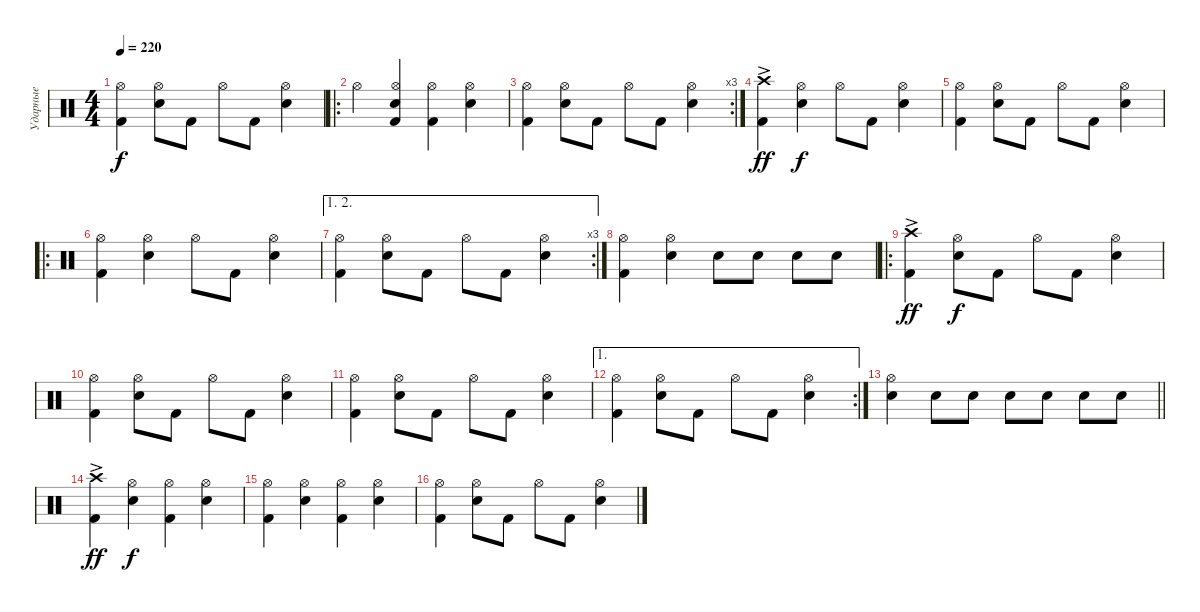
\track ("Ударные" "Ударные") {instrument percussion}
\staff {score}
\articulation defaults
\ts (4 4)
\tempo 220
\clef neutral
\ks c
("Kick (hit) 2" "Hi-Hat (open)").4{dy f} ("Snare (hit) 2" "Hi-Hat (open)").8 "Kick (hit) 2".8 "Hi-Hat (open)".8 "Kick (hit) 2".8 ("Snare (hit) 2" "Hi-Hat (open)").4 |
\ro "Hi-Hat (open)".4
("Kick (hit) 2" "Snare (hit) 2" "Hi-Hat (open)").4 ("Kick (hit) 2" "Hi-Hat (open)").4 ("Snare (hit) 2" "Hi-Hat (open)").4 |
\rc 3
("Kick (hit) 2" "Hi-Hat (open)").4 ("Snare (hit) 2" "Hi-Hat (open)").8 "Kick (hit) 2".8 "Hi-Hat (open)".8 "Kick (hit) 2".8 ("Snare (hit) 2" "Hi-Hat (open)").4 |
("Kick (hit) 2" "Crash high (hit)"{ac}).4{dy ff} ("Snare (hit) 2" "Hi-Hat (open)").4{dy f} "Hi-Hat (open)".8 "Kick (hit) 2".8 ("Snare (hit) 2" "Hi-Hat (open)").4 |
("Kick (hit) 2" "Hi-Hat (open)").4 ("Snare (hit) 2" "Hi-Hat (open)").8 "Kick (hit) 2".8 "Hi-Hat (open)".8 "Kick (hit) 2".8 ("Snare (hit) 2" "Hi-Hat (open)").4 |
\ro
("Kick (hit) 2" "Hi-Hat (open)").4 ("Snare (hit) 2" "Hi-Hat (open)").4 "Hi-Hat (open)".8 "Kick (hit) 2".8 ("Snare (hit) 2" "Hi-Hat (open)").4 |
\ae (1 2)
\rc 3
("Kick (hit) 2" "Hi-Hat (open)").4 ("Snare (hit) 2" "Hi-Hat (open)").8 "Kick (hit) 2".8 "Hi-Hat (open)".8 "Kick (hit) 2".8 ("Snare (hit) 2" "Hi-Hat (open)").4 |
("Kick (hit) 2" "Hi-Hat (open)").4 ("Snare (hit) 2" "Hi-Hat (open)").4 "Snare (hit) 2".8 "Snare (hit) 2".8 "Snare (hit) 2".8 "Snare (hit) 2".8 |
\ro
("Kick (hit) 2" "Crash high (hit)"{ac}).4{dy ff} ("Snare (hit) 2" "Hi-Hat (open)").8{dy f} "Kick (hit) 2".8 "Hi-Hat (open)".8 "Kick (hit) 2".8 ("Snare (hit) 2" "Hi-Hat (open)").4 |
("Kick (hit) 2" "Hi-Hat (open)").4 ("Snare (hit) 2" "Hi-Hat (open)").8 "Kick (hit) 2".8 "Hi-Hat (open)".8 "Kick (hit) 2".8 ("Snare (hit) 2" "Hi-Hat (open)").4 |
("Kick (hit) 2" "Hi-Hat (open)").4 ("Snare (hit) 2" "Hi-Hat (open)").8 "Kick (hit) 2".8 "Hi-Hat (open)".8 "Kick (hit) 2".8 ("Snare (hit) 2" "Hi-Hat (open)").4 |
\ae 1
\rc 2
("Kick (hit) 2" "Hi-Hat (open)").4 ("Snare (hit) 2" "Hi-Hat (open)").8 "Kick (hit) 2".8 "Hi-Hat (open)".8 "Kick (hit) 2".8 ("Snare (hit) 2" "Hi-Hat (open)").4 |
\barLineRight lightlight
("Snare (hit) 2" "Hi-Hat (open)").4 "Snare (hit) 2".8 "Snare (hit) 2".8 "Snare (hit) 2".8 "Snare (hit) 2".8 "Snare (hit) 2".8 "Snare (hit) 2".8 |
("Kick (hit) 2" "Crash high (hit)"{ac}).4{dy ff} ("Snare (hit) 2" "Hi-Hat (open)").4{dy f} ("Kick (hit) 2" "Hi-Hat (open)").4 ("Snare (hit) 2" "Hi-Hat (open)").4 |
("Kick (hit) 2" "Hi-Hat (open)").4 ("Snare (hit) 2" "Hi-Hat (open)").4 ("Kick (hit) 2" "Hi-Hat (open)").4 ("Snare (hit) 2" "Hi-Hat (open)").4 |
("Kick (hit) 2" "Hi-Hat (open)").4 ("Snare (hit) 2" "Hi-Hat (open)").8 "Kick (hit) 2".8 "Hi-Hat (open)".8 "Kick (hit) 2".8 ("Snare (hit) 2" "Hi-Hat (open)").4
